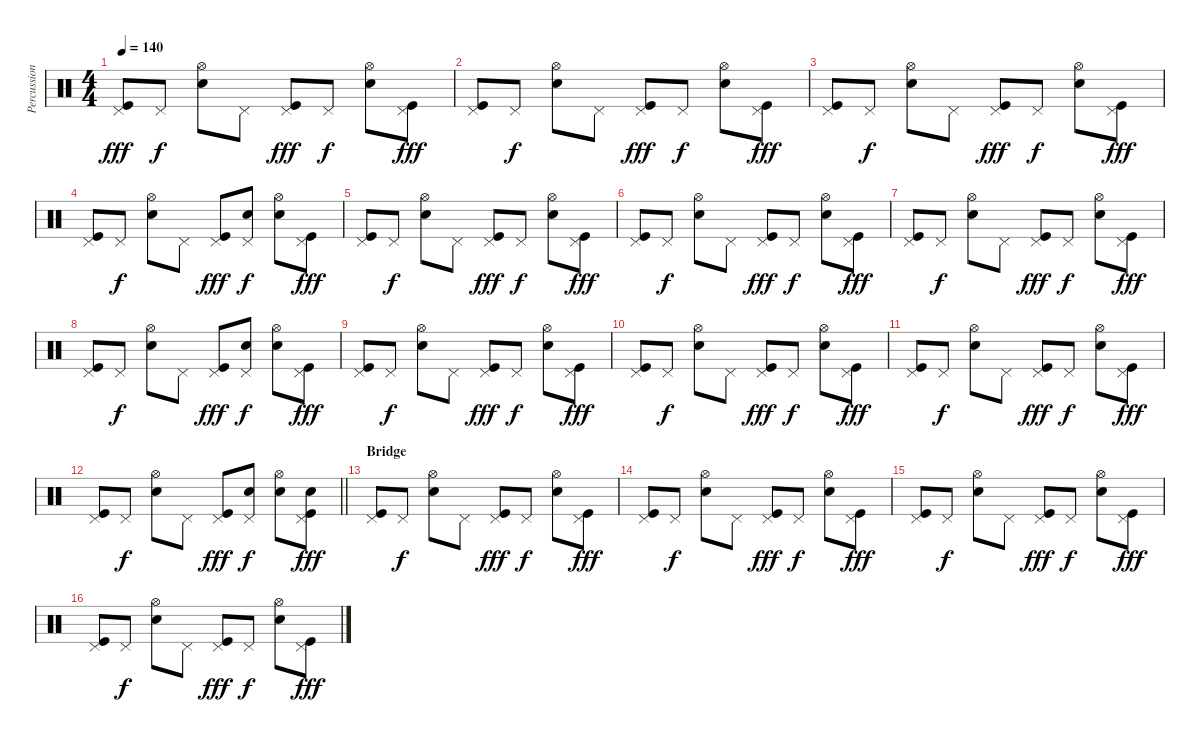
\track ("Percussion" "Percussion") {instrument percussion}
\staff {score}
\articulation defaults
\ts (4 4)
\tempo 140
\clef neutral
\ks c
("Kick (hit)" "Pedal Hi-Hat (hit)").8{dy fff} "Pedal Hi-Hat (hit)".8{dy f} ("Metronome (bell)" "Hi-Hat (open)").8 "Pedal Hi-Hat (hit)".8 ("Kick (hit)" "Pedal Hi-Hat (hit)").8{dy fff} "Pedal Hi-Hat (hit)".8{dy f} ("Metronome (bell)" "Hi-Hat (open)").8 ("Kick (hit)" "Pedal Hi-Hat (hit)").8{dy fff} |
("Kick (hit)" "Pedal Hi-Hat (hit)").8 "Pedal Hi-Hat (hit)".8{dy f} ("Metronome (bell)" "Hi-Hat (open)").8 "Pedal Hi-Hat (hit)".8 ("Kick (hit)" "Pedal Hi-Hat (hit)").8{dy fff} "Pedal Hi-Hat (hit)".8{dy f} ("Metronome (bell)" "Hi-Hat (open)").8 ("Kick (hit)" "Pedal Hi-Hat (hit)").8{dy fff} |
("Kick (hit)" "Pedal Hi-Hat (hit)").8 "Pedal Hi-Hat (hit)".8{dy f} ("Metronome (bell)" "Hi-Hat (open)").8 "Pedal Hi-Hat (hit)".8 ("Kick (hit)" "Pedal Hi-Hat (hit)").8{dy fff} "Pedal Hi-Hat (hit)".8{dy f} ("Metronome (bell)" "Hi-Hat (open)").8 ("Kick (hit)" "Pedal Hi-Hat (hit)").8{dy fff} |
("Kick (hit)" "Pedal Hi-Hat (hit)").8 "Pedal Hi-Hat (hit)".8{dy f} ("Metronome (bell)" "Hi-Hat (open)").8 "Pedal Hi-Hat (hit)".8 ("Kick (hit)" "Pedal Hi-Hat (hit)").8{dy fff} ("Metronome (bell)" "Pedal Hi-Hat (hit)").8{dy f} ("Metronome (bell)" "Hi-Hat (open)").8 ("Kick (hit)" "Pedal Hi-Hat (hit)").8{dy fff} |
("Kick (hit)" "Pedal Hi-Hat (hit)").8 "Pedal Hi-Hat (hit)".8{dy f} ("Metronome (bell)" "Hi-Hat (open)").8 "Pedal Hi-Hat (hit)".8 ("Kick (hit)" "Pedal Hi-Hat (hit)").8{dy fff} "Pedal Hi-Hat (hit)".8{dy f} ("Metronome (bell)" "Hi-Hat (open)").8 ("Kick (hit)" "Pedal Hi-Hat (hit)").8{dy fff} |
("Kick (hit)" "Pedal Hi-Hat (hit)").8 "Pedal Hi-Hat (hit)".8{dy f} ("Metronome (bell)" "Hi-Hat (open)").8 "Pedal Hi-Hat (hit)".8 ("Kick (hit)" "Pedal Hi-Hat (hit)").8{dy fff} "Pedal Hi-Hat (hit)".8{dy f} ("Metronome (bell)" "Hi-Hat (open)").8 ("Kick (hit)" "Pedal Hi-Hat (hit)").8{dy fff} |
("Kick (hit)" "Pedal Hi-Hat (hit)").8 "Pedal Hi-Hat (hit)".8{dy f} ("Metronome (bell)" "Hi-Hat (open)").8 "Pedal Hi-Hat (hit)".8 ("Kick (hit)" "Pedal Hi-Hat (hit)").8{dy fff} "Pedal Hi-Hat (hit)".8{dy f} ("Metronome (bell)" "Hi-Hat (open)").8 ("Kick (hit)" "Pedal Hi-Hat (hit)").8{dy fff} |
("Kick (hit)" "Pedal Hi-Hat (hit)").8 "Pedal Hi-Hat (hit)".8{dy f} ("Metronome (bell)" "Hi-Hat (open)").8 "Pedal Hi-Hat (hit)".8 ("Kick (hit)" "Pedal Hi-Hat (hit)").8{dy fff} ("Metronome (bell)" "Pedal Hi-Hat (hit)").8{dy f} ("Metronome (bell)" "Hi-Hat (open)").8 ("Kick (hit)" "Pedal Hi-Hat (hit)").8{dy fff} |
("Kick (hit)" "Pedal Hi-Hat (hit)").8 "Pedal Hi-Hat (hit)".8{dy f} ("Metronome (bell)" "Hi-Hat (open)").8 "Pedal Hi-Hat (hit)".8 ("Kick (hit)" "Pedal Hi-Hat (hit)").8{dy fff} "Pedal Hi-Hat (hit)".8{dy f} ("Metronome (bell)" "Hi-Hat (open)").8 ("Kick (hit)" "Pedal Hi-Hat (hit)").8{dy fff} |
("Kick (hit)" "Pedal Hi-Hat (hit)").8 "Pedal Hi-Hat (hit)".8{dy f} ("Metronome (bell)" "Hi-Hat (open)").8 "Pedal Hi-Hat (hit)".8 ("Kick (hit)" "Pedal Hi-Hat (hit)").8{dy fff} "Pedal Hi-Hat (hit)".8{dy f} ("Metronome (bell)" "Hi-Hat (open)").8 ("Kick (hit)" "Pedal Hi-Hat (hit)").8{dy fff} |
("Kick (hit)" "Pedal Hi-Hat (hit)").8 "Pedal Hi-Hat (hit)".8{dy f} ("Metronome (bell)" "Hi-Hat (open)").8 "Pedal Hi-Hat (hit)".8 ("Kick (hit)" "Pedal Hi-Hat (hit)").8{dy fff} "Pedal Hi-Hat (hit)".8{dy f} ("Metronome (bell)" "Hi-Hat (open)").8 ("Kick (hit)" "Pedal Hi-Hat (hit)").8{dy fff} |
\barLineRight lightlight
("Kick (hit)" "Pedal Hi-Hat (hit)").8 "Pedal Hi-Hat (hit)".8{dy f} ("Metronome (bell)" "Hi-Hat (open)").8 "Pedal Hi-Hat (hit)".8 ("Kick (hit)" "Pedal Hi-Hat (hit)").8{dy fff} ("Metronome (bell)" "Pedal Hi-Hat (hit)").8{dy f} ("Metronome (bell)" "Hi-Hat (open)").8 ("Kick (hit)" "Metronome (bell)" "Pedal Hi-Hat (hit)").8{dy fff} |
\section ("" "Bridge")
("Kick (hit)" "Pedal Hi-Hat (hit)").8 "Pedal Hi-Hat (hit)".8{dy f} ("Metronome (bell)" "Hi-Hat (open)").8 "Pedal Hi-Hat (hit)".8 ("Kick (hit)" "Pedal Hi-Hat (hit)").8{dy fff} "Pedal Hi-Hat (hit)".8{dy f} ("Metronome (bell)" "Hi-Hat (open)").8 ("Kick (hit)" "Pedal Hi-Hat (hit)").8{dy fff} |
("Kick (hit)" "Pedal Hi-Hat (hit)").8 "Pedal Hi-Hat (hit)".8{dy f} ("Metronome (bell)" "Hi-Hat (open)").8 "Pedal Hi-Hat (hit)".8 ("Kick (hit)" "Pedal Hi-Hat (hit)").8{dy fff} "Pedal Hi-Hat (hit)".8{dy f} ("Metronome (bell)" "Hi-Hat (open)").8 ("Kick (hit)" "Pedal Hi-Hat (hit)").8{dy fff} |
("Kick (hit)" "Pedal Hi-Hat (hit)").8 "Pedal Hi-Hat (hit)".8{dy f} ("Metronome (bell)" "Hi-Hat (open)").8 "Pedal Hi-Hat (hit)".8 ("Kick (hit)" "Pedal Hi-Hat (hit)").8{dy fff} "Pedal Hi-Hat (hit)".8{dy f} ("Metronome (bell)" "Hi-Hat (open)").8 ("Kick (hit)" "Pedal Hi-Hat (hit)").8{dy fff} |
("Kick (hit)" "Pedal Hi-Hat (hit)").8 "Pedal Hi-Hat (hit)".8{dy f} ("Metronome (bell)" "Hi-Hat (open)").8 "Pedal Hi-Hat (hit)".8 ("Kick (hit)" "Pedal Hi-Hat (hit)").8{dy fff} "Pedal Hi-Hat (hit)".8{dy f} ("Metronome (bell)" "Hi-Hat (open)").8 ("Kick (hit)" "Pedal Hi-Hat (hit)").8{dy fff}
